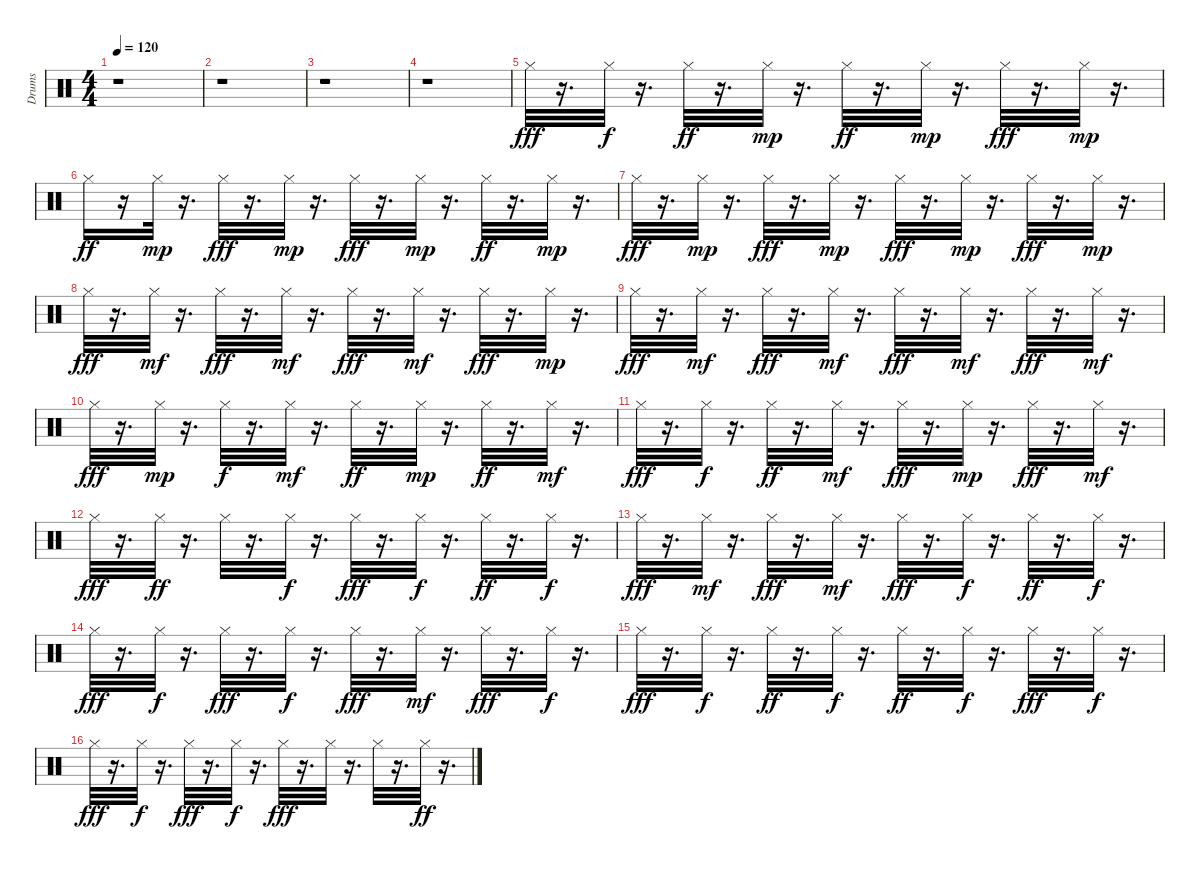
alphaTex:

\track ("Drums" "Drums") {instrument percussion}
\staff {score}
\articulation defaults
\ts (4 4)
\tempo 120
\clef neutral
\ks c
r.1{dy fff} |
r.1 |
r.1 |
r.1 |
"Hi-Hat (closed)".32 r.16{d} "Hi-Hat (closed)".32{dy f} r.16{d} "Hi-Hat (closed)".32{dy ff} r.16{d} "Hi-Hat (closed)".32{dy mp} r.16{d} "Hi-Hat (closed)".32{dy ff} r.16{d} "Hi-Hat (closed)".32{dy mp} r.16{d} "Hi-Hat (closed)".32{dy fff} r.16{d} "Hi-Hat (closed)".32{dy mp} r.16{d} |
"Hi-Hat (closed)".16{dy ff} r.16 "Hi-Hat (closed)".32{dy mp} r.16{d} "Hi-Hat (closed)".32{dy fff} r.16{d} "Hi-Hat (closed)".32{dy mp} r.16{d} "Hi-Hat (closed)".32{dy fff} r.16{d} "Hi-Hat (closed)".32{dy mp} r.16{d} "Hi-Hat (closed)".32{dy ff} r.16{d} "Hi-Hat (closed)".32{dy mp} r.16{d} |
"Hi-Hat (closed)".32{dy fff} r.16{d} "Hi-Hat (closed)".32{dy mp} r.16{d} "Hi-Hat (closed)".32{dy fff} r.16{d} "Hi-Hat (closed)".32{dy mp} r.16{d} "Hi-Hat (closed)".32{dy fff} r.16{d} "Hi-Hat (closed)".32{dy mp} r.16{d} "Hi-Hat (closed)".32{dy fff} r.16{d} "Hi-Hat (closed)".32{dy mp} r.16{d} |
"Hi-Hat (closed)".32{dy fff} r.16{d} "Hi-Hat (closed)".32{dy mf} r.16{d} "Hi-Hat (closed)".32{dy fff} r.16{d} "Hi-Hat (closed)".32{dy mf} r.16{d} "Hi-Hat (closed)".32{dy fff} r.16{d} "Hi-Hat (closed)".32{dy mf} r.16{d} "Hi-Hat (closed)".32{dy fff} r.16{d} "Hi-Hat (closed)".32{dy mp} r.16{d} |
"Hi-Hat (closed)".32{dy fff} r.16{d} "Hi-Hat (closed)".32{dy mf} r.16{d} "Hi-Hat (closed)".32{dy fff} r.16{d} "Hi-Hat (closed)".32{dy mf} r.16{d} "Hi-Hat (closed)".32{dy fff} r.16{d} "Hi-Hat (closed)".32{dy mf} r.16{d} "Hi-Hat (closed)".32{dy fff} r.16{d} "Hi-Hat (closed)".32{dy mf} r.16{d} |
"Hi-Hat (closed)".32{dy fff} r.16{d} "Hi-Hat (closed)".32{dy mp} r.16{d} "Hi-Hat (closed)".32{dy f} r.16{d} "Hi-Hat (closed)".32{dy mf} r.16{d} "Hi-Hat (closed)".32{dy ff} r.16{d} "Hi-Hat (closed)".32{dy mp} r.16{d} "Hi-Hat (closed)".32{dy ff} r.16{d} "Hi-Hat (closed)".32{dy mf} r.16{d} |
"Hi-Hat (closed)".32{dy fff} r.16{d} "Hi-Hat (closed)".32{dy f} r.16{d} "Hi-Hat (closed)".32{dy ff} r.16{d} "Hi-Hat (closed)".32{dy mf} r.16{d} "Hi-Hat (closed)".32{dy fff} r.16{d} "Hi-Hat (closed)".32{dy mp} r.16{d} "Hi-Hat (closed)".32{dy fff} r.16{d} "Hi-Hat (closed)".32{dy mf} r.16{d} |
"Hi-Hat (closed)".32{dy fff} r.16{d} "Hi-Hat (closed)".32{dy ff} r.16{d} "Hi-Hat (closed)".32 r.16{d} "Hi-Hat (closed)".32{dy f} r.16{d} "Hi-Hat (closed)".32{dy fff} r.16{d} "Hi-Hat (closed)".32{dy f} r.16{d} "Hi-Hat (closed)".32{dy ff} r.16{d} "Hi-Hat (closed)".32{dy f} r.16{d} |
"Hi-Hat (closed)".32{dy fff} r.16{d} "Hi-Hat (closed)".32{dy mf} r.16{d} "Hi-Hat (closed)".32{dy fff} r.16{d} "Hi-Hat (closed)".32{dy mf} r.16{d} "Hi-Hat (closed)".32{dy fff} r.16{d} "Hi-Hat (closed)".32{dy f} r.16{d} "Hi-Hat (closed)".32{dy ff} r.16{d} "Hi-Hat (closed)".32{dy f} r.16{d} |
"Hi-Hat (closed)".32{dy fff} r.16{d} "Hi-Hat (closed)".32{dy f} r.16{d} "Hi-Hat (closed)".32{dy fff} r.16{d} "Hi-Hat (closed)".32{dy f} r.16{d} "Hi-Hat (closed)".32{dy fff} r.16{d} "Hi-Hat (closed)".32{dy mf} r.16{d} "Hi-Hat (closed)".32{dy fff} r.16{d} "Hi-Hat (closed)".32{dy f} r.16{d} |
"Hi-Hat (closed)".32{dy fff} r.16{d} "Hi-Hat (closed)".32{dy f} r.16{d} "Hi-Hat (closed)".32{dy ff} r.16{d} "Hi-Hat (closed)".32{dy f} r.16{d} "Hi-Hat (closed)".32{dy ff} r.16{d} "Hi-Hat (closed)".32{dy f} r.16{d} "Hi-Hat (closed)".32{dy fff} r.16{d} "Hi-Hat (closed)".32{dy f} r.16{d} |
"Hi-Hat (closed)".32{dy fff} r.16{d} "Hi-Hat (closed)".32{dy f} r.16{d} "Hi-Hat (closed)".32{dy fff} r.16{d} "Hi-Hat (closed)".32{dy f} r.16{d} "Hi-Hat (closed)".32{dy fff} r.16{d} "Hi-Hat (closed)".32 r.16{d} "Hi-Hat (closed)".32 r.16{d} "Hi-Hat (closed)".32{dy ff} r.16{d}
